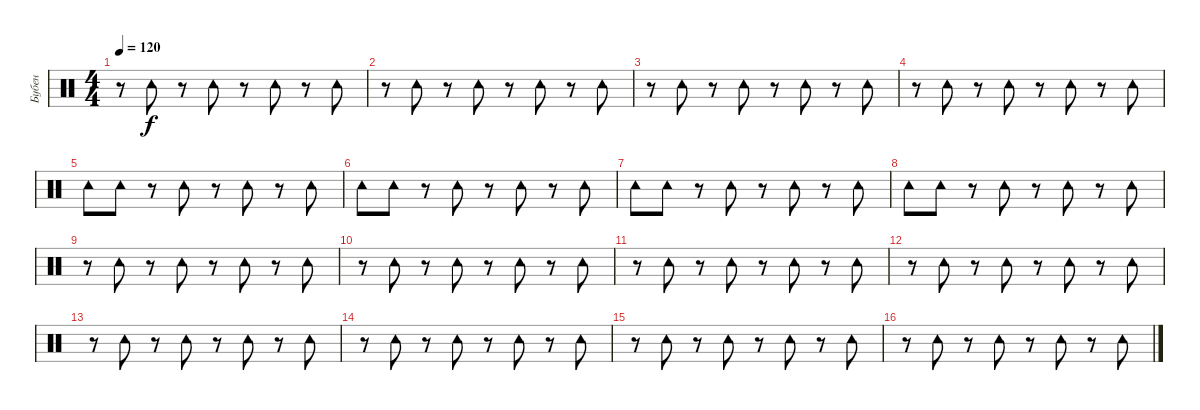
\track ("Бубен" "Бубен") {instrument percussion}
\staff {score}
\articulation defaults
\ts (4 4)
\tempo 120
\clef neutral
\ks c
r.8{dy f} "Tambourine (hit)".8 r.8 "Tambourine (hit)".8 r.8 "Tambourine (hit)".8 r.8 "Tambourine (hit)".8 |
r.8 "Tambourine (hit)".8 r.8 "Tambourine (hit)".8 r.8 "Tambourine (hit)".8 r.8 "Tambourine (hit)".8 |
r.8 "Tambourine (hit)".8 r.8 "Tambourine (hit)".8 r.8 "Tambourine (hit)".8 r.8 "Tambourine (hit)".8 |
r.8 "Tambourine (hit)".8 r.8 "Tambourine (hit)".8 r.8 "Tambourine (hit)".8 r.8 "Tambourine (hit)".8 |
"Tambourine (hit)".8 "Tambourine (hit)".8 r.8 "Tambourine (hit)".8 r.8 "Tambourine (hit)".8 r.8 "Tambourine (hit)".8 |
"Tambourine (hit)".8 "Tambourine (hit)".8 r.8 "Tambourine (hit)".8 r.8 "Tambourine (hit)".8 r.8 "Tambourine (hit)".8 |
"Tambourine (hit)".8 "Tambourine (hit)".8 r.8 "Tambourine (hit)".8 r.8 "Tambourine (hit)".8 r.8 "Tambourine (hit)".8 |
"Tambourine (hit)".8 "Tambourine (hit)".8 r.8 "Tambourine (hit)".8 r.8 "Tambourine (hit)".8 r.8 "Tambourine (hit)".8 |
r.8 "Tambourine (hit)".8 r.8 "Tambourine (hit)".8 r.8 "Tambourine (hit)".8 r.8 "Tambourine (hit)".8 |
r.8 "Tambourine (hit)".8 r.8 "Tambourine (hit)".8 r.8 "Tambourine (hit)".8 r.8 "Tambourine (hit)".8 |
r.8 "Tambourine (hit)".8 r.8 "Tambourine (hit)".8 r.8 "Tambourine (hit)".8 r.8 "Tambourine (hit)".8 |
r.8 "Tambourine (hit)".8 r.8 "Tambourine (hit)".8 r.8 "Tambourine (hit)".8 r.8 "Tambourine (hit)".8 |
r.8 "Tambourine (hit)".8 r.8 "Tambourine (hit)".8 r.8 "Tambourine (hit)".8 r.8 "Tambourine (hit)".8 |
r.8 "Tambourine (hit)".8 r.8 "Tambourine (hit)".8 r.8 "Tambourine (hit)".8 r.8 "Tambourine (hit)".8 |
r.8 "Tambourine (hit)".8 r.8 "Tambourine (hit)".8 r.8 "Tambourine (hit)".8 r.8 "Tambourine (hit)".8 |
r.8 "Tambourine (hit)".8 r.8 "Tambourine (hit)".8 r.8 "Tambourine (hit)".8 r.8 "Tambourine (hit)".8
